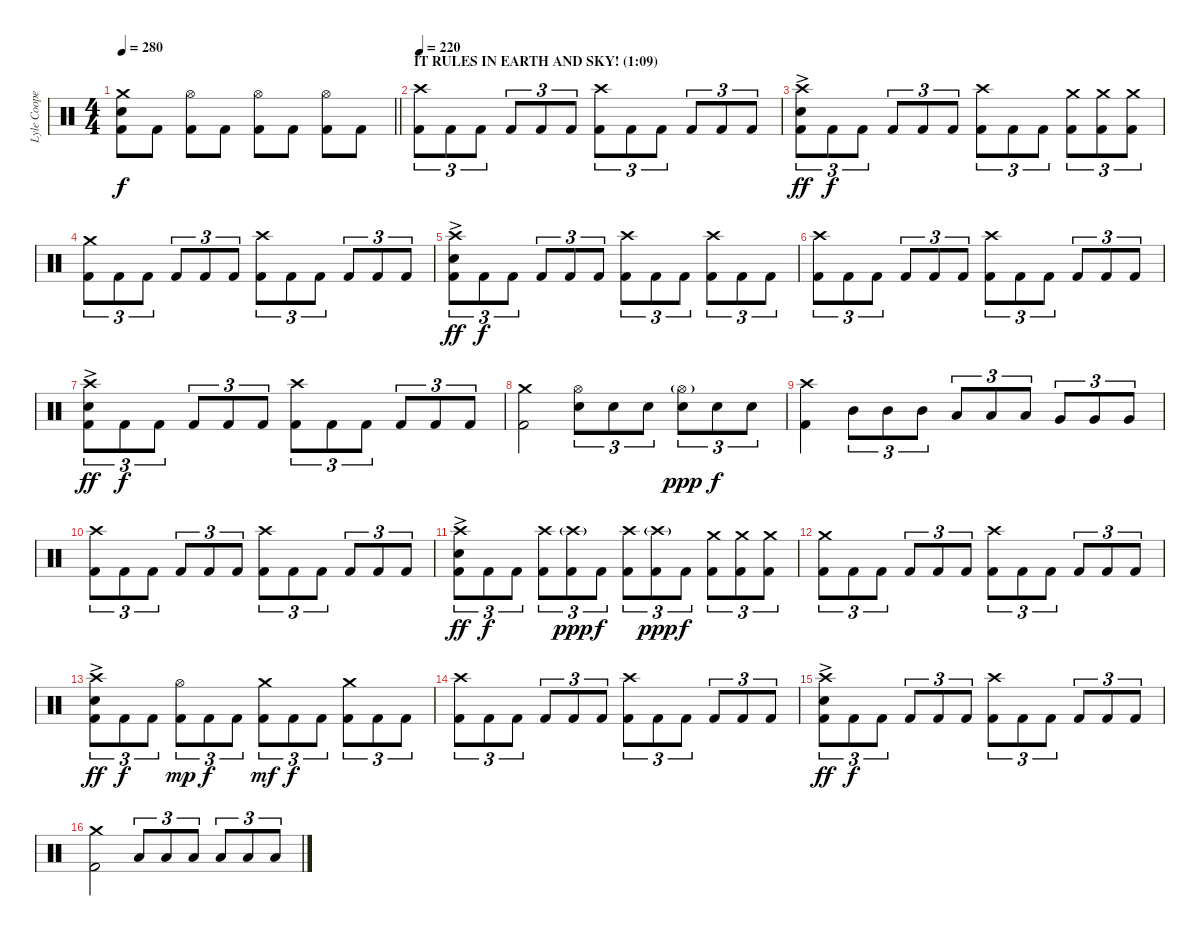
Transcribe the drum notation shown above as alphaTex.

\track ("Lyle Cooper [Drums]" "Lyle Coope") {instrument percussion}
\staff {score}
\articulation defaults
\ts (4 4)
\tempo 280
\clef neutral
\barLineRight lightlight
\ks c
("Crash medium (hit)" "Electric Snare (hit)" "Kick (hit) 2").8{dy f} "Kick (hit) 2".8 ("Hi-Hat (open)" "Kick (hit) 2").8 "Kick (hit) 2".8 ("Hi-Hat (open)" "Kick (hit) 2").8 "Kick (hit) 2".8 ("Hi-Hat (open)" "Kick (hit) 2").8 "Kick (hit) 2".8 |
\section ("" "IT RULES IN EARTH AND SKY! (1:09)")
\tempo 220
("Crash high (hit)" "Kick (hit) 2").8{tu (3 2)} "Kick (hit) 2".8{tu (3 2)} "Kick (hit) 2".8{tu (3 2)} "Kick (hit) 2".8{tu (3 2)} "Kick (hit) 2".8{tu (3 2)} "Kick (hit) 2".8{tu (3 2)} ("Crash high (hit)" "Kick (hit) 2").8{tu (3 2)} "Kick (hit) 2".8{tu (3 2)} "Kick (hit) 2".8{tu (3 2)} "Kick (hit) 2".8{tu (3 2)} "Kick (hit) 2".8{tu (3 2)} "Kick (hit) 2".8{tu (3 2)} |
("Crash high (hit)" "Electric Snare (hit)"{ac} "Kick (hit) 2").8{tu (3 2) dy ff} "Kick (hit) 2".8{tu (3 2) dy f} "Kick (hit) 2".8{tu (3 2)} "Kick (hit) 2".8{tu (3 2)} "Kick (hit) 2".8{tu (3 2)} "Kick (hit) 2".8{tu (3 2)} ("Crash high (hit)" "Kick (hit) 2").8{tu (3 2)} "Kick (hit) 2".8{tu (3 2)} "Kick (hit) 2".8{tu (3 2)} ("Crash medium (hit)" "Kick (hit) 2").8{tu (3 2)} ("Crash medium (hit)" "Kick (hit) 2").8{tu (3 2)} ("Crash medium (hit)" "Kick (hit) 2").8{tu (3 2)} |
("Crash medium (hit)" "Kick (hit) 2").8{tu (3 2)} "Kick (hit) 2".8{tu (3 2)} "Kick (hit) 2".8{tu (3 2)} "Kick (hit) 2".8{tu (3 2)} "Kick (hit) 2".8{tu (3 2)} "Kick (hit) 2".8{tu (3 2)} ("Crash high (hit)" "Kick (hit) 2").8{tu (3 2)} "Kick (hit) 2".8{tu (3 2)} "Kick (hit) 2".8{tu (3 2)} "Kick (hit) 2".8{tu (3 2)} "Kick (hit) 2".8{tu (3 2)} "Kick (hit) 2".8{tu (3 2)} |
("Crash high (hit)" "Electric Snare (hit)"{ac} "Kick (hit) 2").8{tu (3 2) dy ff} "Kick (hit) 2".8{tu (3 2) dy f} "Kick (hit) 2".8{tu (3 2)} "Kick (hit) 2".8{tu (3 2)} "Kick (hit) 2".8{tu (3 2)} "Kick (hit) 2".8{tu (3 2)} ("Crash high (hit)" "Kick (hit) 2").8{tu (3 2)} "Kick (hit) 2".8{tu (3 2)} "Kick (hit) 2".8{tu (3 2)} ("Crash high (hit)" "Kick (hit) 2").8{tu (3 2)} "Kick (hit) 2".8{tu (3 2)} "Kick (hit) 2".8{tu (3 2)} |
("Crash high (hit)" "Kick (hit) 2").8{tu (3 2)} "Kick (hit) 2".8{tu (3 2)} "Kick (hit) 2".8{tu (3 2)} "Kick (hit) 2".8{tu (3 2)} "Kick (hit) 2".8{tu (3 2)} "Kick (hit) 2".8{tu (3 2)} ("Crash high (hit)" "Kick (hit) 2").8{tu (3 2)} "Kick (hit) 2".8{tu (3 2)} "Kick (hit) 2".8{tu (3 2)} "Kick (hit) 2".8{tu (3 2)} "Kick (hit) 2".8{tu (3 2)} "Kick (hit) 2".8{tu (3 2)} |
("Crash high (hit)" "Electric Snare (hit)"{ac} "Kick (hit) 2").8{tu (3 2) dy ff} "Kick (hit) 2".8{tu (3 2) dy f} "Kick (hit) 2".8{tu (3 2)} "Kick (hit) 2".8{tu (3 2)} "Kick (hit) 2".8{tu (3 2)} "Kick (hit) 2".8{tu (3 2)} ("Crash high (hit)" "Kick (hit) 2").8{tu (3 2)} "Kick (hit) 2".8{tu (3 2)} "Kick (hit) 2".8{tu (3 2)} "Kick (hit) 2".8{tu (3 2)} "Kick (hit) 2".8{tu (3 2)} "Kick (hit) 2".8{tu (3 2)} |
("Crash medium (hit)" "Kick (hit) 2").2 ("Hi-Hat (open)" "Electric Snare (hit)").8{tu (3 2)} "Electric Snare (hit)".8{tu (3 2)} "Electric Snare (hit)".8{tu (3 2)} ("Hi-Hat (open)"{g} "Electric Snare (hit)").8{tu (3 2) dy ppp} "Electric Snare (hit)".8{tu (3 2) dy f} "Electric Snare (hit)".8{tu (3 2)} |
("Crash high (hit)" "Kick (hit) 2").4 "Mid Tom (hit)".8{tu (3 2)} "Mid Tom (hit)".8{tu (3 2)} "Mid Tom (hit)".8{tu (3 2)} "Low Tom (hit)".8{tu (3 2)} "Low Tom (hit)".8{tu (3 2)} "Low Tom (hit)".8{tu (3 2)} "Very Low Tom (hit)".8{tu (3 2)} "Very Low Tom (hit)".8{tu (3 2)} "Very Low Tom (hit)".8{tu (3 2)} |
("Crash high (hit)" "Kick (hit) 2").8{tu (3 2)} "Kick (hit) 2".8{tu (3 2)} "Kick (hit) 2".8{tu (3 2)} "Kick (hit) 2".8{tu (3 2)} "Kick (hit) 2".8{tu (3 2)} "Kick (hit) 2".8{tu (3 2)} ("Crash high (hit)" "Kick (hit) 2").8{tu (3 2)} "Kick (hit) 2".8{tu (3 2)} "Kick (hit) 2".8{tu (3 2)} "Kick (hit) 2".8{tu (3 2)} "Kick (hit) 2".8{tu (3 2)} "Kick (hit) 2".8{tu (3 2)} |
("Crash high (hit)" "Electric Snare (hit)"{ac} "Kick (hit) 2").8{tu (3 2) dy ff} "Kick (hit) 2".8{tu (3 2) dy f} "Kick (hit) 2".8{tu (3 2)} ("Crash high (hit)" "Kick (hit) 2").8{tu (3 2)} ("Crash high (hit)"{g} "Kick (hit) 2").8{tu (3 2) dy ppp} "Kick (hit) 2".8{tu (3 2) dy f} ("Crash high (hit)" "Kick (hit) 2").8{tu (3 2)} ("Crash high (hit)"{g} "Kick (hit) 2").8{tu (3 2) dy ppp} "Kick (hit) 2".8{tu (3 2) dy f} ("Crash medium (hit)" "Kick (hit) 2").8{tu (3 2)} ("Crash medium (hit)" "Kick (hit) 2").8{tu (3 2)} ("Crash medium (hit)" "Kick (hit) 2").8{tu (3 2)} |
("Crash medium (hit)" "Kick (hit) 2").8{tu (3 2)} "Kick (hit) 2".8{tu (3 2)} "Kick (hit) 2".8{tu (3 2)} "Kick (hit) 2".8{tu (3 2)} "Kick (hit) 2".8{tu (3 2)} "Kick (hit) 2".8{tu (3 2)} ("Crash high (hit)" "Kick (hit) 2").8{tu (3 2)} "Kick (hit) 2".8{tu (3 2)} "Kick (hit) 2".8{tu (3 2)} "Kick (hit) 2".8{tu (3 2)} "Kick (hit) 2".8{tu (3 2)} "Kick (hit) 2".8{tu (3 2)} |
("Crash high (hit)" "Electric Snare (hit)"{ac} "Kick (hit) 2").8{tu (3 2) dy ff} "Kick (hit) 2".8{tu (3 2) dy f} "Kick (hit) 2".8{tu (3 2)} ("Hi-Hat (open)" "Kick (hit) 2").8{tu (3 2) dy mp} "Kick (hit) 2".8{tu (3 2) dy f} "Kick (hit) 2".8{tu (3 2)} ("Crash medium (hit)" "Kick (hit) 2").8{tu (3 2) dy mf} "Kick (hit) 2".8{tu (3 2) dy f} "Kick (hit) 2".8{tu (3 2)} ("Crash medium (hit)" "Kick (hit) 2").8{tu (3 2)} "Kick (hit) 2".8{tu (3 2)} "Kick (hit) 2".8{tu (3 2)} |
("Crash high (hit)" "Kick (hit) 2").8{tu (3 2)} "Kick (hit) 2".8{tu (3 2)} "Kick (hit) 2".8{tu (3 2)} "Kick (hit) 2".8{tu (3 2)} "Kick (hit) 2".8{tu (3 2)} "Kick (hit) 2".8{tu (3 2)} ("Crash high (hit)" "Kick (hit) 2").8{tu (3 2)} "Kick (hit) 2".8{tu (3 2)} "Kick (hit) 2".8{tu (3 2)} "Kick (hit) 2".8{tu (3 2)} "Kick (hit) 2".8{tu (3 2)} "Kick (hit) 2".8{tu (3 2)} |
("Crash high (hit)" "Electric Snare (hit)"{ac} "Kick (hit) 2").8{tu (3 2) dy ff} "Kick (hit) 2".8{tu (3 2) dy f} "Kick (hit) 2".8{tu (3 2)} "Kick (hit) 2".8{tu (3 2)} "Kick (hit) 2".8{tu (3 2)} "Kick (hit) 2".8{tu (3 2)} ("Crash high (hit)" "Kick (hit) 2").8{tu (3 2)} "Kick (hit) 2".8{tu (3 2)} "Kick (hit) 2".8{tu (3 2)} "Kick (hit) 2".8{tu (3 2)} "Kick (hit) 2".8{tu (3 2)} "Kick (hit) 2".8{tu (3 2)} |
("Crash medium (hit)" "Kick (hit) 2").2 "Low Tom (hit)".8{tu (3 2)} "Low Tom (hit)".8{tu (3 2)} "Low Tom (hit)".8{tu (3 2)} "Low Tom (hit)".8{tu (3 2)} "Low Tom (hit)".8{tu (3 2)} "Low Tom (hit)".8{tu (3 2)}
